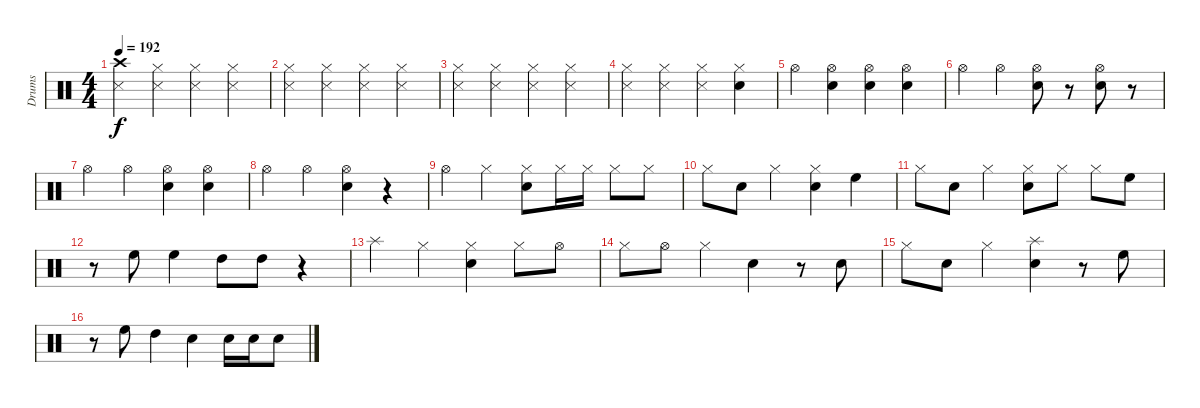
\track ("Drums" "Drums") {instrument percussion}
\staff {score}
\articulation defaults
\ts (4 4)
\tempo 192
\clef neutral
\ks c
("Crash high (hit)" "Snare (side stick) 3").4{dy f} ("Hi-Hat (closed)" "Snare (side stick) 3").4 ("Hi-Hat (closed)" "Snare (side stick) 3").4 ("Hi-Hat (closed)" "Snare (side stick) 3").4 |
("Hi-Hat (closed)" "Snare (side stick) 3").4 ("Hi-Hat (closed)" "Snare (side stick) 3").4 ("Hi-Hat (closed)" "Snare (side stick) 3").4 ("Hi-Hat (closed)" "Snare (side stick) 3").4 |
("Hi-Hat (closed)" "Snare (side stick) 3").4 ("Hi-Hat (closed)" "Snare (side stick) 3").4 ("Hi-Hat (closed)" "Snare (side stick) 3").4 ("Hi-Hat (closed)" "Snare (side stick) 3").4 |
("Hi-Hat (closed)" "Snare (side stick) 3").4 ("Hi-Hat (closed)" "Snare (side stick) 3").4 ("Hi-Hat (closed)" "Snare (side stick) 3").4 ("Hi-Hat (closed)" "Snare (hit) 2").4 |
"Hi-Hat (open)".4 ("Hi-Hat (open)" "Snare (hit) 2").4 ("Hi-Hat (open)" "Snare (hit) 2").4 ("Hi-Hat (open)" "Snare (hit) 2").4 |
"Hi-Hat (open)".4 "Hi-Hat (open)".4 ("Hi-Hat (open)" "Snare (hit) 2").8 r.8 ("Hi-Hat (open)" "Snare (hit) 2").8 r.8 |
"Hi-Hat (open)".4 "Hi-Hat (open)".4 ("Hi-Hat (open)" "Snare (hit) 2").4 ("Hi-Hat (open)" "Snare (hit) 2").4 |
"Hi-Hat (open)".4 "Hi-Hat (open)".4 ("Hi-Hat (open)" "Snare (hit) 2").4 r.4 |
"Hi-Hat (open)".4 "Hi-Hat (closed)".4 ("Hi-Hat (closed)" "Snare (hit) 2").8 "Hi-Hat (closed)".16 "Hi-Hat (closed)".16 "Hi-Hat (closed)".8 "Hi-Hat (closed)".8 |
"Hi-Hat (closed)".8 "Snare (hit) 2".8 "Hi-Hat (closed)".4 ("Hi-Hat (closed)" "Snare (hit) 2").4 "High Floor Tom (hit)".4 |
"Hi-Hat (closed)".8 "Snare (hit) 2".8 "Hi-Hat (closed)".4 ("Hi-Hat (closed)" "Snare (hit) 2").8 "Hi-Hat (closed)".8 "Hi-Hat (closed)".8 "High Floor Tom (hit)".8 |
r.8 "High Floor Tom (hit)".8 "High Floor Tom (hit)".4 "High Tom (hit)".8 "High Tom (hit)".8 r.4 |
"Splash (hit)".4 "Hi-Hat (closed)".4 ("Hi-Hat (closed)" "Snare (hit) 2").4 "Hi-Hat (closed)".8 "Hi-Hat (open)".8 |
"Hi-Hat (closed)".8 "Hi-Hat (open)".8 "Hi-Hat (closed)".4 "Snare (hit) 2".4 r.8 "Snare (hit) 2".8 |
"Hi-Hat (closed)".8 "Snare (hit) 2".8 "Hi-Hat (closed)".4 ("Splash (hit)" "Snare (hit) 2").4 r.8 "High Floor Tom (hit)".8 |
r.8 "High Floor Tom (hit)".8 "High Tom (hit)".4 "Snare (hit) 2".4 "Snare (hit) 2".16 "Snare (hit) 2".16 "Snare (hit) 2".8
